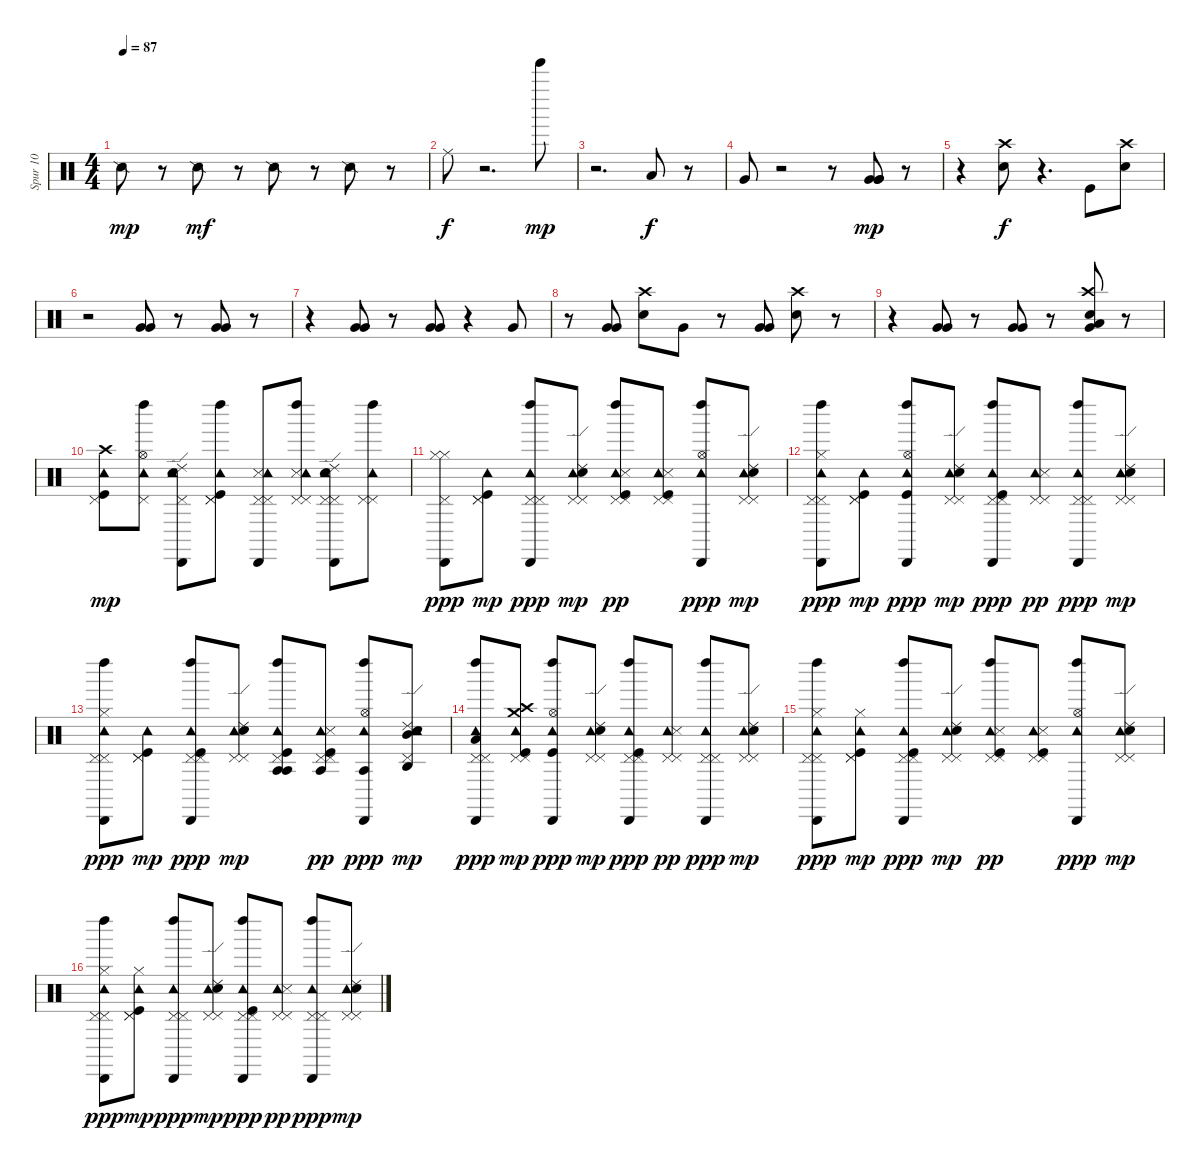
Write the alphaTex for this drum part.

\track ("Spur 10" "Spur 10") {instrument percussion}
\staff {score}
\articulation defaults
\ts (4 4)
\tempo 87
\clef neutral
\ks c "Snare (side stick) 2".8{dy mp}
r.8 "Snare (side stick) 2".8{dy mf} r.8 "Snare (side stick) 2".8 r.8 "Snare (side stick) 2".8 r.8 |
"Ride (middle)".8{dy f} r.2{d} "Tinkle Bell (hit)".8{dy mp} |
r.2{d} "Low Tom (hit)".8{dy f} r.8 |
"Very Low Tom (hit)".8 r.2 r.8 ("Very Low Tom (hit)" "Very Low Tom (hit)" "Very Low Tom (hit)").8{dy mp} r.8 |
r.4 ("Crash high (hit)" "Electric Snare (hit)").8{dy f} r.4{d} "Kick (hit)".8 ("Crash high (hit)" "Electric Snare (hit)").8 |
r.2 ("Very Low Tom (hit)" "Very Low Tom (hit)").8 r.8 ("Very Low Tom (hit)" "Very Low Tom (hit)").8 r.8 |
r.4 ("Very Low Tom (hit)" "Very Low Tom (hit)").8 r.8 ("Very Low Tom (hit)" "Very Low Tom (hit)").8 r.4 "Very Low Tom (hit)".8 |
r.8 ("Very Low Tom (hit)" "Very Low Tom (hit)").8 ("Crash high (hit)" "Electric Snare (hit)").8 "Very Low Tom (hit)".8 r.8 ("Very Low Tom (hit)" "Very Low Tom (hit)").8 ("Crash high (hit)" "Electric Snare (hit)").8 r.8 |
r.4 ("Very Low Tom (hit)" "Very Low Tom (hit)").8 r.8 ("Very Low Tom (hit)" "Very Low Tom (hit)").8 r.8 ("Crash high (hit)" "Electric Snare (hit)" "Very Low Tom (hit)" "Low Floor Tom (hit)").8 r.8 |
("Crash high (hit)" "Pedal Hi-Hat (hit)" "Tambourine (hit)" "Kick (hit)").8{dy mp} ("Pedal Hi-Hat (hit)" "Left Maraca (hit)" "Hi-Hat (open)" "Tambourine (hit)").8 ("Cabasa (hit)" "Ride (edge) 2" "Pedal Hi-Hat (hit)" "Tambourine (hit)" "Electric Snare (hit)").8 ("Pedal Hi-Hat (hit)" "Pedal Hi-Hat (hit)" "Kick (hit)" "Tambourine (hit)" "Left Maraca (hit)").8 ("Cabasa (hit)" "Pedal Hi-Hat (hit)" "Snare (side stick) 3" "Pedal Hi-Hat (hit)" "Tambourine (hit)").8 ("Snare (side stick) 3" "Pedal Hi-Hat (hit)" "Left Maraca (hit)" "Pedal Hi-Hat (hit)" "Tambourine (hit)").8 ("Cabasa (hit)" "Pedal Hi-Hat (hit)" "Ride (edge) 2" "Pedal Hi-Hat (hit)" "Tambourine (hit)" "Electric Snare (hit)").8 ("Pedal Hi-Hat (hit)" "Left Maraca (hit)" "Pedal Hi-Hat (hit)" "Tambourine (hit)").8 |
("Cabasa (hit)" "Pedal Hi-Hat (hit)" "Hi-Hat (closed)" "Hi-Hat (closed)").8{dy ppp} ("Pedal Hi-Hat (hit)" "Tambourine (hit)" "Kick (hit)" "Pedal Hi-Hat (hit)").8{dy mp} ("Left Maraca (hit)" "Pedal Hi-Hat (hit)" "Tambourine (hit)" "Cabasa (hit)" "Pedal Hi-Hat (hit)").8{dy ppp} ("Pedal Hi-Hat (hit)" "Tambourine (hit)" "Electric Snare (hit)" "Ride (edge) 2" "Pedal Hi-Hat (hit)").8{dy mp} ("Kick (hit)" "Tambourine (hit)" "Left Maraca (hit)" "Pedal Hi-Hat (hit)" "Pedal Hi-Hat (hit)" "Snare (side stick) 3").8{dy pp} ("Tambourine (hit)" "Pedal Hi-Hat (hit)" "Kick (hit)" "Snare (side stick) 3" "Pedal Hi-Hat (hit)").8 ("Left Maraca (hit)" "Tambourine (hit)" "Hi-Hat (open)" "Cabasa (hit)").8{dy ppp} ("Ride (edge) 2" "Tambourine (hit)" "Pedal Hi-Hat (hit)" "Electric Snare (hit)" "Pedal Hi-Hat (hit)").8{dy mp} |
("Pedal Hi-Hat (hit)" "Left Maraca (hit)" "Tambourine (hit)" "Pedal Hi-Hat (hit)" "Cabasa (hit)" "Hi-Hat (closed)").8{dy ppp} ("Pedal Hi-Hat (hit)" "Tambourine (hit)" "Kick (hit)" "Pedal Hi-Hat (hit)").8{dy mp} ("Left Maraca (hit)" "Hi-Hat (open)" "Tambourine (hit)" "Kick (hit)" "Cabasa (hit)").8{dy ppp} ("Ride (edge) 2" "Pedal Hi-Hat (hit)" "Tambourine (hit)" "Electric Snare (hit)" "Pedal Hi-Hat (hit)").8{dy mp} ("Pedal Hi-Hat (hit)" "Kick (hit)" "Tambourine (hit)" "Left Maraca (hit)" "Cabasa (hit)" "Pedal Hi-Hat (hit)").8{dy ppp} ("Pedal Hi-Hat (hit)" "Tambourine (hit)" "Snare (side stick) 3" "Pedal Hi-Hat (hit)").8{dy pp} ("Left Maraca (hit)" "Pedal Hi-Hat (hit)" "Tambourine (hit)" "Cabasa (hit)" "Pedal Hi-Hat (hit)").8{dy ppp} ("Ride (edge) 2" "Pedal Hi-Hat (hit)" "Tambourine (hit)" "Electric Snare (hit)" "Pedal Hi-Hat (hit)").8{dy mp} |
("Left Maraca (hit)" "Pedal Hi-Hat (hit)" "Tambourine (hit)" "Cabasa (hit)" "Pedal Hi-Hat (hit)" "Hi-Hat (closed)").8{dy ppp} ("Pedal Hi-Hat (hit)" "Tambourine (hit)" "Kick (hit)" "Pedal Hi-Hat (hit)").8{dy mp} ("Left Maraca (hit)" "Pedal Hi-Hat (hit)" "Tambourine (hit)" "Kick (hit)" "Cabasa (hit)" "Pedal Hi-Hat (hit)").8{dy ppp} ("Pedal Hi-Hat (hit)" "Tambourine (hit)" "Electric Snare (hit)" "Ride (edge) 2" "Pedal Hi-Hat (hit)").8{dy mp} ("Agogo tow (hit)" "Kick (hit)" "Tambourine (hit)" "Left Maraca (hit)" "Pedal Hi-Hat (hit)" "Agogo tow (hit)").8 ("Tambourine (hit)" "Pedal Hi-Hat (hit)" "Kick (hit)" "Agogo tow (hit)" "Snare (side stick) 3" "Pedal Hi-Hat (hit)").8{dy pp} ("Left Maraca (hit)" "Tambourine (hit)" "Hi-Hat (open)" "Agogo tow (hit)" "Cabasa (hit)").8{dy ppp} ("Agogo high (hit)" "Ride (edge) 2" "Tambourine (hit)" "Pedal Hi-Hat (hit)" "Electric Snare (hit)" "Mid Tom (hit)").8{dy mp} |
("Pedal Hi-Hat (hit)" "Left Maraca (hit)" "Tambourine (hit)" "Low Tom (hit)" "Pedal Hi-Hat (hit)" "Cabasa (hit)").8{dy ppp} ("Crash high (hit)" "Pedal Hi-Hat (hit)" "Tambourine (hit)" "Kick (hit)" "Crash medium (hit)" "Pedal Hi-Hat (hit)").8{dy mp} ("Left Maraca (hit)" "Hi-Hat (open)" "Tambourine (hit)" "Kick (hit)" "Cabasa (hit)").8{dy ppp} ("Ride (edge) 2" "Pedal Hi-Hat (hit)" "Tambourine (hit)" "Electric Snare (hit)" "Pedal Hi-Hat (hit)").8{dy mp} ("Pedal Hi-Hat (hit)" "Kick (hit)" "Tambourine (hit)" "Left Maraca (hit)" "Cabasa (hit)" "Pedal Hi-Hat (hit)").8{dy ppp} ("Pedal Hi-Hat (hit)" "Tambourine (hit)" "Snare (side stick) 3" "Pedal Hi-Hat (hit)").8{dy pp} ("Left Maraca (hit)" "Pedal Hi-Hat (hit)" "Tambourine (hit)" "Cabasa (hit)" "Pedal Hi-Hat (hit)").8{dy ppp} ("Ride (edge) 2" "Pedal Hi-Hat (hit)" "Tambourine (hit)" "Electric Snare (hit)" "Pedal Hi-Hat (hit)").8{dy mp} |
("Left Maraca (hit)" "Pedal Hi-Hat (hit)" "Tambourine (hit)" "Cabasa (hit)" "Pedal Hi-Hat (hit)" "Hi-Hat (closed)").8{dy ppp} ("Hi-Hat (closed)" "Pedal Hi-Hat (hit)" "Tambourine (hit)" "Kick (hit)" "Pedal Hi-Hat (hit)").8{dy mp} ("Left Maraca (hit)" "Pedal Hi-Hat (hit)" "Tambourine (hit)" "Kick (hit)" "Cabasa (hit)" "Pedal Hi-Hat (hit)").8{dy ppp} ("Pedal Hi-Hat (hit)" "Tambourine (hit)" "Electric Snare (hit)" "Ride (edge) 2" "Pedal Hi-Hat (hit)").8{dy mp} ("Kick (hit)" "Tambourine (hit)" "Left Maraca (hit)" "Pedal Hi-Hat (hit)" "Pedal Hi-Hat (hit)" "Snare (side stick) 3").8{dy pp} ("Tambourine (hit)" "Pedal Hi-Hat (hit)" "Kick (hit)" "Snare (side stick) 3" "Pedal Hi-Hat (hit)").8 ("Left Maraca (hit)" "Tambourine (hit)" "Hi-Hat (open)" "Cabasa (hit)").8{dy ppp} ("Ride (edge) 2" "Tambourine (hit)" "Pedal Hi-Hat (hit)" "Electric Snare (hit)" "Pedal Hi-Hat (hit)").8{dy mp} |
("Pedal Hi-Hat (hit)" "Left Maraca (hit)" "Tambourine (hit)" "Pedal Hi-Hat (hit)" "Cabasa (hit)" "Hi-Hat (closed)").8{dy ppp} ("Hi-Hat (closed)" "Pedal Hi-Hat (hit)" "Tambourine (hit)" "Kick (hit)" "Pedal Hi-Hat (hit)").8{dy mp} ("Pedal Hi-Hat (hit)" "Left Maraca (hit)" "Tambourine (hit)" "Pedal Hi-Hat (hit)" "Cabasa (hit)").8{dy ppp} ("Ride (edge) 2" "Pedal Hi-Hat (hit)" "Tambourine (hit)" "Electric Snare (hit)" "Pedal Hi-Hat (hit)").8{dy mp} ("Pedal Hi-Hat (hit)" "Kick (hit)" "Tambourine (hit)" "Left Maraca (hit)" "Cabasa (hit)" "Pedal Hi-Hat (hit)").8{dy ppp} ("Pedal Hi-Hat (hit)" "Tambourine (hit)" "Snare (side stick) 3" "Pedal Hi-Hat (hit)").8{dy pp} ("Left Maraca (hit)" "Pedal Hi-Hat (hit)" "Tambourine (hit)" "Cabasa (hit)" "Pedal Hi-Hat (hit)").8{dy ppp} ("Ride (edge) 2" "Pedal Hi-Hat (hit)" "Tambourine (hit)" "Electric Snare (hit)" "Pedal Hi-Hat (hit)").8{dy mp}
